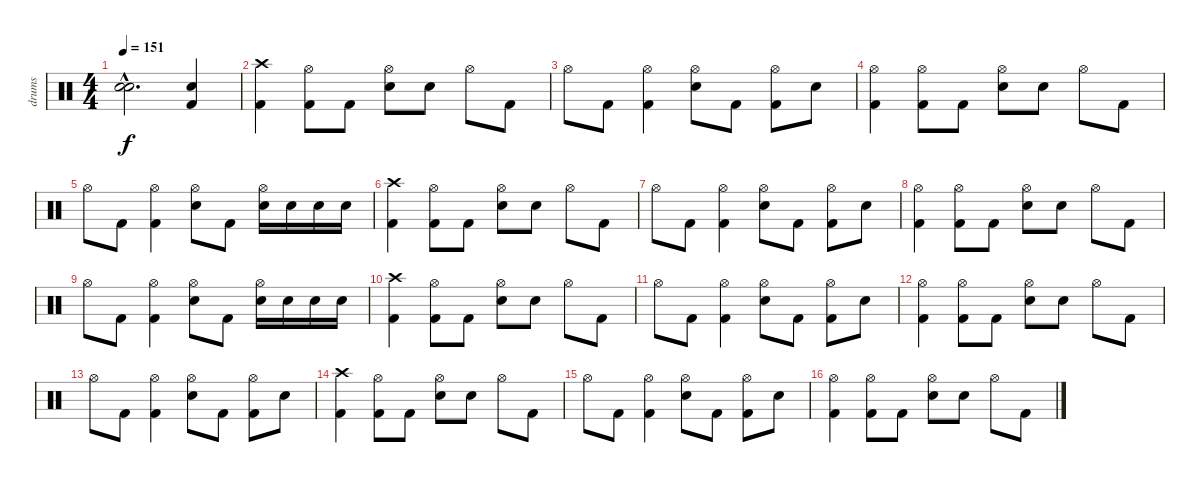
\track ("drums" "drums") {instrument percussion}
\staff {score}
\articulation defaults
\ts (4 4)
\tempo 151
\clef neutral
\ks c
("Snare (hit)"{hac t} "Snare (hit)"{hac t}).2{d dy f} ("Electric Snare (hit)" "Kick (hit) 2").4 |
("Crash high (hit)" "Kick (hit) 2").4 ("Hi-Hat (open)" "Kick (hit) 2").8 "Kick (hit) 2".8 ("Hi-Hat (open)" "Electric Snare (hit)").8 "Electric Snare (hit)".8 "Hi-Hat (open)".8 "Kick (hit) 2".8 |
"Hi-Hat (open)".8 "Kick (hit) 2".8 ("Hi-Hat (open)" "Kick (hit) 2").4 ("Hi-Hat (open)" "Electric Snare (hit)").8 "Kick (hit) 2".8 ("Hi-Hat (open)" "Kick (hit) 2").8 "Electric Snare (hit)".8 |
("Hi-Hat (open)" "Kick (hit) 2").4 ("Hi-Hat (open)" "Kick (hit) 2").8 "Kick (hit) 2".8 ("Hi-Hat (open)" "Electric Snare (hit)").8 "Electric Snare (hit)".8 "Hi-Hat (open)".8 "Kick (hit) 2".8 |
"Hi-Hat (open)".8 "Kick (hit) 2".8 ("Hi-Hat (open)" "Kick (hit) 2").4 ("Hi-Hat (open)" "Electric Snare (hit)").8 "Kick (hit) 2".8 ("Hi-Hat (open)" "Electric Snare (hit)").16 "Electric Snare (hit)".16 "Electric Snare (hit)".16 "Electric Snare (hit)".16 |
("Crash high (hit)" "Kick (hit) 2").4 ("Hi-Hat (open)" "Kick (hit) 2").8 "Kick (hit) 2".8 ("Hi-Hat (open)" "Electric Snare (hit)").8 "Electric Snare (hit)".8 "Hi-Hat (open)".8 "Kick (hit) 2".8 |
"Hi-Hat (open)".8 "Kick (hit) 2".8 ("Hi-Hat (open)" "Kick (hit) 2").4 ("Hi-Hat (open)" "Electric Snare (hit)").8 "Kick (hit) 2".8 ("Hi-Hat (open)" "Kick (hit) 2").8 "Electric Snare (hit)".8 |
("Hi-Hat (open)" "Kick (hit) 2").4 ("Hi-Hat (open)" "Kick (hit) 2").8 "Kick (hit) 2".8 ("Hi-Hat (open)" "Electric Snare (hit)").8 "Electric Snare (hit)".8 "Hi-Hat (open)".8 "Kick (hit) 2".8 |
"Hi-Hat (open)".8 "Kick (hit) 2".8 ("Hi-Hat (open)" "Kick (hit) 2").4 ("Hi-Hat (open)" "Electric Snare (hit)").8 "Kick (hit) 2".8 ("Hi-Hat (open)" "Electric Snare (hit)").16 "Electric Snare (hit)".16 "Electric Snare (hit)".16 "Electric Snare (hit)".16 |
("Crash high (hit)" "Kick (hit) 2").4 ("Hi-Hat (open)" "Kick (hit) 2").8 "Kick (hit) 2".8 ("Hi-Hat (open)" "Electric Snare (hit)").8 "Electric Snare (hit)".8 "Hi-Hat (open)".8 "Kick (hit) 2".8 |
"Hi-Hat (open)".8 "Kick (hit) 2".8 ("Hi-Hat (open)" "Kick (hit) 2").4 ("Hi-Hat (open)" "Electric Snare (hit)").8 "Kick (hit) 2".8 ("Hi-Hat (open)" "Kick (hit) 2").8 "Electric Snare (hit)".8 |
("Hi-Hat (open)" "Kick (hit) 2").4 ("Hi-Hat (open)" "Kick (hit) 2").8 "Kick (hit) 2".8 ("Hi-Hat (open)" "Electric Snare (hit)").8 "Electric Snare (hit)".8 "Hi-Hat (open)".8 "Kick (hit) 2".8 |
"Hi-Hat (open)".8 "Kick (hit) 2".8 ("Hi-Hat (open)" "Kick (hit) 2").4 ("Hi-Hat (open)" "Electric Snare (hit)").8 "Kick (hit) 2".8 ("Hi-Hat (open)" "Kick (hit) 2").8 "Electric Snare (hit)".8 |
("Crash high (hit)" "Kick (hit) 2").4 ("Hi-Hat (open)" "Kick (hit) 2").8 "Kick (hit) 2".8 ("Hi-Hat (open)" "Electric Snare (hit)").8 "Electric Snare (hit)".8 "Hi-Hat (open)".8 "Kick (hit) 2".8 |
"Hi-Hat (open)".8 "Kick (hit) 2".8 ("Hi-Hat (open)" "Kick (hit) 2").4 ("Hi-Hat (open)" "Electric Snare (hit)").8 "Kick (hit) 2".8 ("Hi-Hat (open)" "Kick (hit) 2").8 "Electric Snare (hit)".8 |
("Hi-Hat (open)" "Kick (hit) 2").4 ("Hi-Hat (open)" "Kick (hit) 2").8 "Kick (hit) 2".8 ("Hi-Hat (open)" "Electric Snare (hit)").8 "Electric Snare (hit)".8 "Hi-Hat (open)".8 "Kick (hit) 2".8
